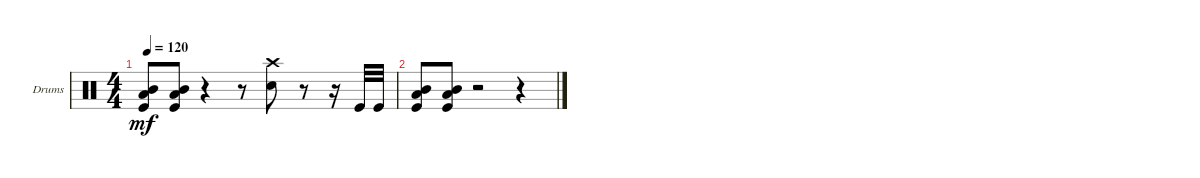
\defaultSystemsLayout 4
\bracketExtendMode groupsimilarinstruments
\firstSystemTrackNameOrientation horizontal
\otherSystemsTrackNameOrientation horizontal
\track ("Drumkit" "Drums") {instrument percussion}
\staff {score}
\articulation defaults
\ts (4 4)
\tempo 120
\clef neutral
\ks c
("Low Tom (hit)" "Mid Tom (hit)" "Kick (hit)").8{dy mf} ("Kick (hit)" "Low Tom (hit)" "Mid Tom (hit)").8 r.4 r.8 ("Snare (hit) 2" "Crash high (hit)").8 r.8 r.16 "Kick (hit)".32 "Kick (hit)".32 |
("Low Tom (hit)" "Mid Tom (hit)" "Kick (hit)").8 ("Kick (hit)" "Low Tom (hit)" "Mid Tom (hit)").8 r.2 r.4
